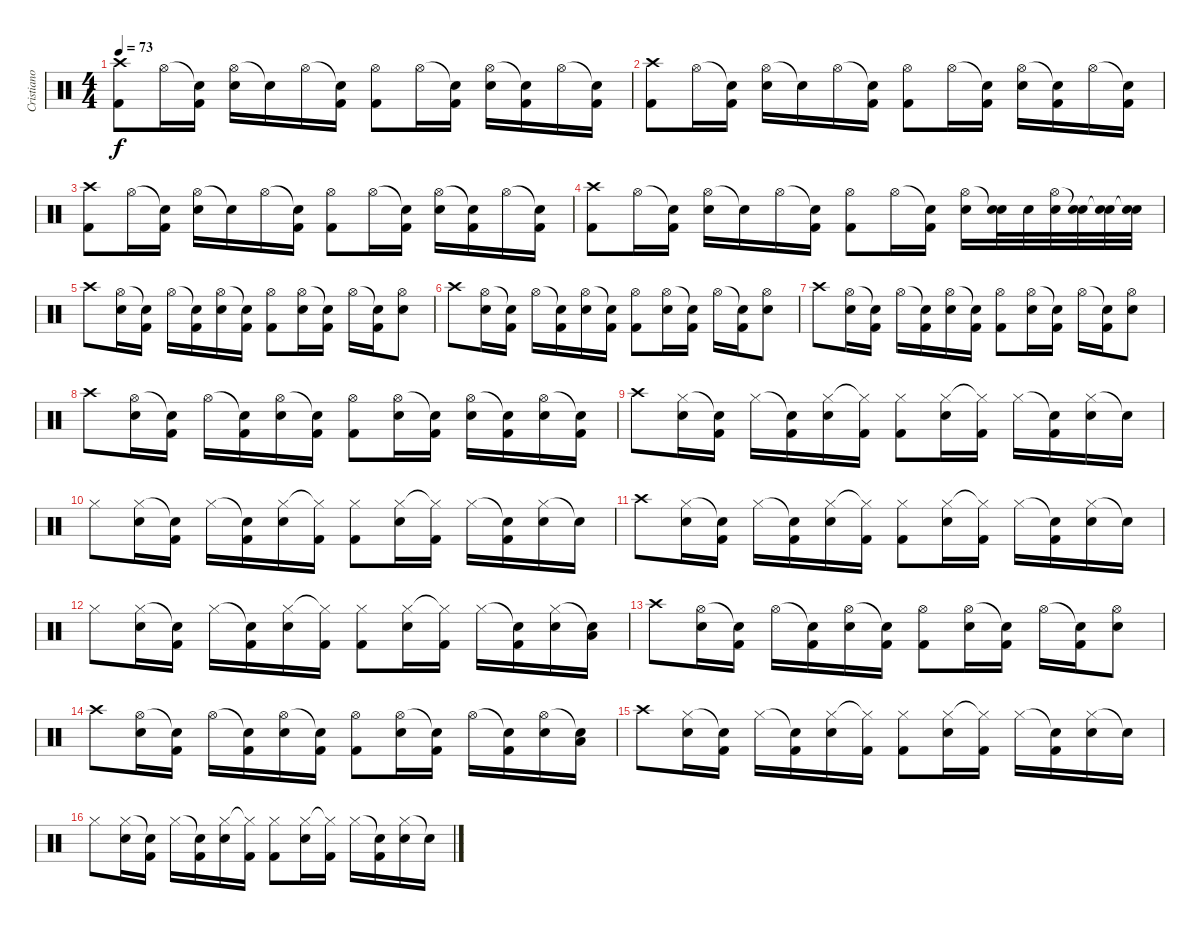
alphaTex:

\track ("Cristiano Mozzati" "Cristiano ") {instrument percussion}
\staff {score}
\articulation defaults
\ts (4 4)
\tempo 73
\clef neutral
\ks c
("Crash high (hit)" "Kick (hit) 2").8{dy f} "Hi-Hat (open)".16 ("Snare (hit)"{t} "Kick (hit) 2").16 ("Hi-Hat (open)" "Electric Snare (hit)").16 "Snare (hit)"{t}.16 "Hi-Hat (open)".16 ("Snare (hit)"{t} "Kick (hit) 2").16 ("Hi-Hat (open)" "Kick (hit) 2").8 "Hi-Hat (open)".16 ("Snare (hit)"{t} "Kick (hit) 2").16 ("Hi-Hat (open)" "Electric Snare (hit)").16 ("Snare (hit)"{t} "Kick (hit) 2").16 "Hi-Hat (open)".16 ("Snare (hit)"{t} "Kick (hit) 2").16 |
("Crash high (hit)" "Kick (hit) 2").8 "Hi-Hat (open)".16 ("Snare (hit)"{t} "Kick (hit) 2").16 ("Hi-Hat (open)" "Electric Snare (hit)").16 "Snare (hit)"{t}.16 "Hi-Hat (open)".16 ("Snare (hit)"{t} "Kick (hit) 2").16 ("Hi-Hat (open)" "Kick (hit) 2").8 "Hi-Hat (open)".16 ("Snare (hit)"{t} "Kick (hit) 2").16 ("Hi-Hat (open)" "Electric Snare (hit)").16 ("Snare (hit)"{t} "Kick (hit) 2").16 "Hi-Hat (open)".16 ("Snare (hit)"{t} "Kick (hit) 2").16 |
("Crash high (hit)" "Kick (hit) 2").8 "Hi-Hat (open)".16 ("Snare (hit)"{t} "Kick (hit) 2").16 ("Hi-Hat (open)" "Electric Snare (hit)").16 "Snare (hit)"{t}.16 "Hi-Hat (open)".16 ("Snare (hit)"{t} "Kick (hit) 2").16 ("Hi-Hat (open)" "Kick (hit) 2").8 "Hi-Hat (open)".16 ("Snare (hit)"{t} "Kick (hit) 2").16 ("Hi-Hat (open)" "Electric Snare (hit)").16 ("Snare (hit)"{t} "Kick (hit) 2").16 "Hi-Hat (open)".16 ("Snare (hit)"{t} "Kick (hit) 2").16 |
("Crash high (hit)" "Kick (hit) 2").8 "Hi-Hat (open)".16 ("Snare (hit)"{t} "Kick (hit) 2").16 ("Hi-Hat (open)" "Electric Snare (hit)").16 "Snare (hit)"{t}.16 "Hi-Hat (open)".16 ("Snare (hit)"{t} "Kick (hit) 2").16 ("Hi-Hat (open)" "Kick (hit) 2").8 "Hi-Hat (open)".16 ("Snare (hit)"{t} "Kick (hit) 2").16 ("Hi-Hat (open)" "Electric Snare (hit)").16 ("Snare (hit)"{t} "Electric Snare (hit)").32 "Electric Snare (hit)".32 ("Hi-Hat (open)" "Electric Snare (hit)").32 ("Snare (hit)"{t} "Electric Snare (hit)").32 ("Snare (hit)"{t} "Electric Snare (hit)").32 ("Snare (hit)"{t} "Electric Snare (hit)").32 |
"Crash high (hit)".8 ("Hi-Hat (open)" "Electric Snare (hit)").16 ("Snare (hit)"{t} "Kick (hit) 2").16 "Hi-Hat (open)".16 ("Snare (hit)"{t} "Kick (hit) 2").16 ("Hi-Hat (open)" "Electric Snare (hit)").16 ("Snare (hit)"{t} "Kick (hit) 2").16 ("Hi-Hat (open)" "Kick (hit) 2").8 ("Hi-Hat (open)" "Electric Snare (hit)").16 ("Snare (hit)"{t} "Kick (hit) 2").16 "Hi-Hat (open)".16 ("Snare (hit)"{t} "Kick (hit) 2").16 ("Hi-Hat (open)" "Electric Snare (hit)").8 |
"Crash high (hit)".8 ("Hi-Hat (open)" "Electric Snare (hit)").16 ("Snare (hit)"{t} "Kick (hit) 2").16 "Hi-Hat (open)".16 ("Snare (hit)"{t} "Kick (hit) 2").16 ("Hi-Hat (open)" "Electric Snare (hit)").16 ("Snare (hit)"{t} "Kick (hit) 2").16 ("Hi-Hat (open)" "Kick (hit) 2").8 ("Hi-Hat (open)" "Electric Snare (hit)").16 ("Snare (hit)"{t} "Kick (hit) 2").16 "Hi-Hat (open)".16 ("Snare (hit)"{t} "Kick (hit) 2").16 ("Hi-Hat (open)" "Electric Snare (hit)").8 |
"Crash high (hit)".8 ("Hi-Hat (open)" "Electric Snare (hit)").16 ("Snare (hit)"{t} "Kick (hit) 2").16 "Hi-Hat (open)".16 ("Snare (hit)"{t} "Kick (hit) 2").16 ("Hi-Hat (open)" "Electric Snare (hit)").16 ("Snare (hit)"{t} "Kick (hit) 2").16 ("Hi-Hat (open)" "Kick (hit) 2").8 ("Hi-Hat (open)" "Electric Snare (hit)").16 ("Snare (hit)"{t} "Kick (hit) 2").16 "Hi-Hat (open)".16 ("Snare (hit)"{t} "Kick (hit) 2").16 ("Hi-Hat (open)" "Electric Snare (hit)").8 |
"Crash high (hit)".8 ("Hi-Hat (open)" "Electric Snare (hit)").16 ("Snare (hit)"{t} "Kick (hit) 2").16 "Hi-Hat (open)".16 ("Snare (hit)"{t} "Kick (hit) 2").16 ("Hi-Hat (open)" "Electric Snare (hit)").16 ("Snare (hit)"{t} "Kick (hit) 2").16 ("Hi-Hat (open)" "Kick (hit) 2").8 ("Hi-Hat (open)" "Electric Snare (hit)").16 ("Snare (hit)"{t} "Kick (hit) 2").16 ("Hi-Hat (open)" "Electric Snare (hit)").16 ("Snare (hit)"{t} "Kick (hit) 2").16 ("Hi-Hat (open)" "Electric Snare (hit)").16 ("Snare (hit)"{t} "Kick (hit) 2").16 |
"Crash high (hit)".8 ("Hi-Hat (closed)" "Electric Snare (hit)").16 ("Snare (hit)"{t} "Kick (hit) 2").16 "Hi-Hat (closed)".16 ("Snare (hit)"{t} "Kick (hit) 2").16 ("Hi-Hat (closed)" "Electric Snare (hit)").16 ("Hi-Hat (closed)"{t} "Kick (hit) 2").16 ("Hi-Hat (closed)" "Kick (hit) 2").8 ("Hi-Hat (closed)" "Electric Snare (hit)").16 ("Hi-Hat (closed)"{t} "Kick (hit) 2").16 "Hi-Hat (closed)".16 ("Snare (hit)"{t} "Kick (hit) 2").16 ("Hi-Hat (closed)" "Electric Snare (hit)").16 "Snare (hit)"{t}.16 |
"Hi-Hat (closed)".8 ("Hi-Hat (closed)" "Electric Snare (hit)").16 ("Snare (hit)"{t} "Kick (hit) 2").16 "Hi-Hat (closed)".16 ("Snare (hit)"{t} "Kick (hit) 2").16 ("Hi-Hat (closed)" "Electric Snare (hit)").16 ("Hi-Hat (closed)"{t} "Kick (hit) 2").16 ("Hi-Hat (closed)" "Kick (hit) 2").8 ("Hi-Hat (closed)" "Electric Snare (hit)").16 ("Hi-Hat (closed)"{t} "Kick (hit) 2").16 "Hi-Hat (closed)".16 ("Snare (hit)"{t} "Kick (hit) 2").16 ("Hi-Hat (closed)" "Electric Snare (hit)").16 "Snare (hit)"{t}.16 |
"Crash high (hit)".8 ("Hi-Hat (closed)" "Electric Snare (hit)").16 ("Snare (hit)"{t} "Kick (hit) 2").16 "Hi-Hat (closed)".16 ("Snare (hit)"{t} "Kick (hit) 2").16 ("Hi-Hat (closed)" "Electric Snare (hit)").16 ("Hi-Hat (closed)"{t} "Kick (hit) 2").16 ("Hi-Hat (closed)" "Kick (hit) 2").8 ("Hi-Hat (closed)" "Electric Snare (hit)").16 ("Hi-Hat (closed)"{t} "Kick (hit) 2").16 "Hi-Hat (closed)".16 ("Snare (hit)"{t} "Kick (hit) 2").16 ("Hi-Hat (closed)" "Electric Snare (hit)").16 "Snare (hit)"{t}.16 |
"Hi-Hat (closed)".8 ("Hi-Hat (closed)" "Electric Snare (hit)").16 ("Snare (hit)"{t} "Kick (hit) 2").16 "Hi-Hat (closed)".16 ("Snare (hit)"{t} "Kick (hit) 2").16 ("Hi-Hat (closed)" "Electric Snare (hit)").16 ("Hi-Hat (closed)"{t} "Kick (hit) 2").16 ("Hi-Hat (closed)" "Kick (hit) 2").8 ("Hi-Hat (closed)" "Electric Snare (hit)").16 ("Hi-Hat (closed)"{t} "Kick (hit) 2").16 "Hi-Hat (closed)".16 ("Snare (hit)"{t} "Kick (hit) 2").16 ("Hi-Hat (closed)" "Electric Snare (hit)").16 ("Snare (hit)"{t} "Low Tom (hit)").16 |
"Crash high (hit)".8 ("Hi-Hat (open)" "Electric Snare (hit)").16 ("Snare (hit)"{t} "Kick (hit) 2").16 "Hi-Hat (open)".16 ("Snare (hit)"{t} "Kick (hit) 2").16 ("Hi-Hat (open)" "Electric Snare (hit)").16 ("Snare (hit)"{t} "Kick (hit) 2").16 ("Hi-Hat (open)" "Kick (hit) 2").8 ("Hi-Hat (open)" "Electric Snare (hit)").16 ("Snare (hit)"{t} "Kick (hit) 2").16 "Hi-Hat (open)".16 ("Snare (hit)"{t} "Kick (hit) 2").16 ("Hi-Hat (open)" "Electric Snare (hit)").8 |
"Crash high (hit)".8 ("Hi-Hat (open)" "Electric Snare (hit)").16 ("Snare (hit)"{t} "Kick (hit) 2").16 "Hi-Hat (open)".16 ("Snare (hit)"{t} "Kick (hit) 2").16 ("Hi-Hat (open)" "Electric Snare (hit)").16 ("Snare (hit)"{t} "Kick (hit) 2").16 ("Hi-Hat (open)" "Kick (hit) 2").8 ("Hi-Hat (open)" "Electric Snare (hit)").16 ("Snare (hit)"{t} "Kick (hit) 2").16 "Hi-Hat (open)".16 ("Snare (hit)"{t} "Kick (hit) 2").16 ("Hi-Hat (open)" "Electric Snare (hit)").16 ("Snare (hit)"{t} "Low Tom (hit)").16 |
"Crash high (hit)".8 ("Hi-Hat (closed)" "Electric Snare (hit)").16 ("Snare (hit)"{t} "Kick (hit) 2").16 "Hi-Hat (closed)".16 ("Snare (hit)"{t} "Kick (hit) 2").16 ("Hi-Hat (closed)" "Electric Snare (hit)").16 ("Hi-Hat (closed)"{t} "Kick (hit) 2").16 ("Hi-Hat (closed)" "Kick (hit) 2").8 ("Hi-Hat (closed)" "Electric Snare (hit)").16 ("Hi-Hat (closed)"{t} "Kick (hit) 2").16 "Hi-Hat (closed)".16 ("Snare (hit)"{t} "Kick (hit) 2").16 ("Hi-Hat (closed)" "Electric Snare (hit)").16 "Snare (hit)"{t}.16 |
"Hi-Hat (closed)".8 ("Hi-Hat (closed)" "Electric Snare (hit)").16 ("Snare (hit)"{t} "Kick (hit) 2").16 "Hi-Hat (closed)".16 ("Snare (hit)"{t} "Kick (hit) 2").16 ("Hi-Hat (closed)" "Electric Snare (hit)").16 ("Hi-Hat (closed)"{t} "Kick (hit) 2").16 ("Hi-Hat (closed)" "Kick (hit) 2").8 ("Hi-Hat (closed)" "Electric Snare (hit)").16 ("Hi-Hat (closed)"{t} "Kick (hit) 2").16 "Hi-Hat (closed)".16 ("Snare (hit)"{t} "Kick (hit) 2").16 ("Hi-Hat (closed)" "Electric Snare (hit)").16 "Snare (hit)"{t}.16
